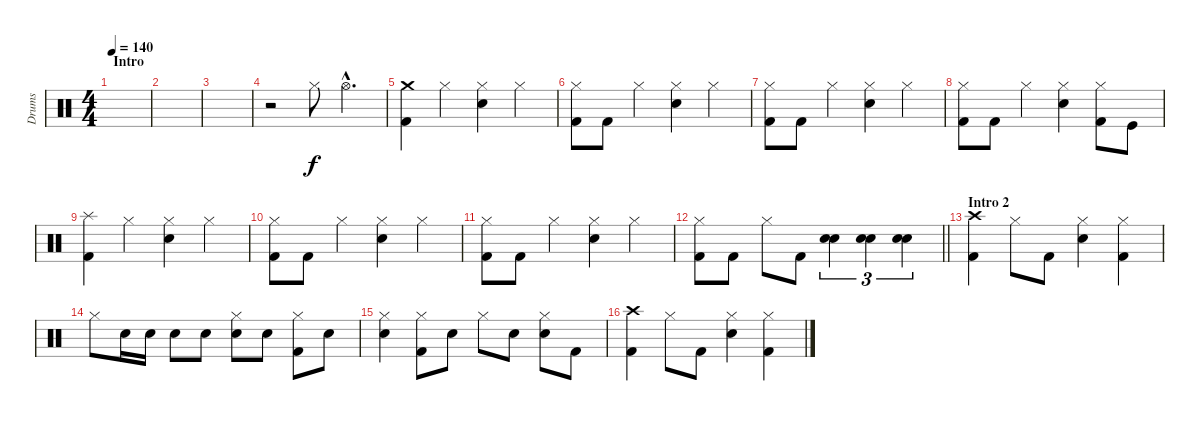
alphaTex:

\track ("Drums" "Drums") {instrument percussion}
\staff {score}
\articulation defaults
\ts (4 4)
\section ("" "Intro")
\tempo 140
\clef neutral
\ks c
|
|
|
r.2 "Hi-Hat (closed)".8 "Hi-Hat (open)"{hac}.4{d} |
("Crash medium (hit)" "Kick (hit) 2").4 "Hi-Hat (closed)".4 ("Hi-Hat (closed)" "Snare (hit) 2").4 "Hi-Hat (closed)".4 |
("Hi-Hat (closed)" "Kick (hit) 2").8 "Kick (hit) 2".8 "Hi-Hat (closed)".4 ("Hi-Hat (closed)" "Snare (hit) 2").4 "Hi-Hat (closed)".4 |
("Hi-Hat (closed)" "Kick (hit) 2").8 "Kick (hit) 2".8 "Hi-Hat (closed)".4 ("Hi-Hat (closed)" "Snare (hit) 2").4 "Hi-Hat (closed)".4 |
("Hi-Hat (closed)" "Kick (hit) 2").8 "Kick (hit) 2".8 "Hi-Hat (closed)".4 ("Hi-Hat (closed)" "Snare (hit) 2").4 ("Hi-Hat (closed)" "Kick (hit) 2").8 "Kick (hit)".8 |
("Splash (hit)" "Kick (hit) 2").4 "Hi-Hat (closed)".4 ("Hi-Hat (closed)" "Snare (hit) 2").4 "Hi-Hat (closed)".4 |
("Hi-Hat (closed)" "Kick (hit) 2").8 "Kick (hit) 2".8 "Hi-Hat (closed)".4 ("Hi-Hat (closed)" "Snare (hit) 2").4 "Hi-Hat (closed)".4 |
("Hi-Hat (closed)" "Kick (hit) 2").8 "Kick (hit) 2".8 "Hi-Hat (closed)".4 ("Hi-Hat (closed)" "Snare (hit) 2").4 "Hi-Hat (closed)".4 |
\barLineRight lightlight
("Hi-Hat (closed)" "Kick (hit) 2").8 "Kick (hit) 2".8 "Hi-Hat (closed)".8 "Kick (hit) 2".8 ("Snare (hit) 2" "Snare (hit) 2").4{tu (3 2)} ("Snare (hit) 2" "Snare (hit) 2").4{tu (3 2)} ("Snare (hit) 2" "Snare (hit) 2").4{tu (3 2)} |
\section ("" "Intro 2")
("Crash high (hit)" "Kick (hit) 2").4 "Hi-Hat (closed)".8 "Kick (hit) 2".8 ("Hi-Hat (closed)" "Snare (hit) 2").4 ("Hi-Hat (closed)" "Kick (hit) 2").4 |
"Hi-Hat (closed)".8 "Snare (hit) 2".16 "Electric Snare (hit)".16 "Snare (hit) 2".8 "Electric Snare (hit)".8 ("Hi-Hat (closed)" "Snare (hit) 2").8 "Electric Snare (hit)".8 ("Hi-Hat (closed)" "Kick (hit) 2").8 "Electric Snare (hit)".8 |
("Hi-Hat (closed)" "Snare (hit) 2").4 ("Hi-Hat (closed)" "Kick (hit) 2").8 "Snare (hit) 2".8 "Hi-Hat (closed)".8 "Electric Snare (hit)".8 ("Hi-Hat (closed)" "Snare (hit) 2").8 "Kick (hit) 2".8 |
("Crash high (hit)" "Kick (hit) 2").4 "Hi-Hat (closed)".8 "Kick (hit) 2".8 ("Hi-Hat (closed)" "Snare (hit) 2").4 ("Hi-Hat (closed)" "Kick (hit) 2").4
